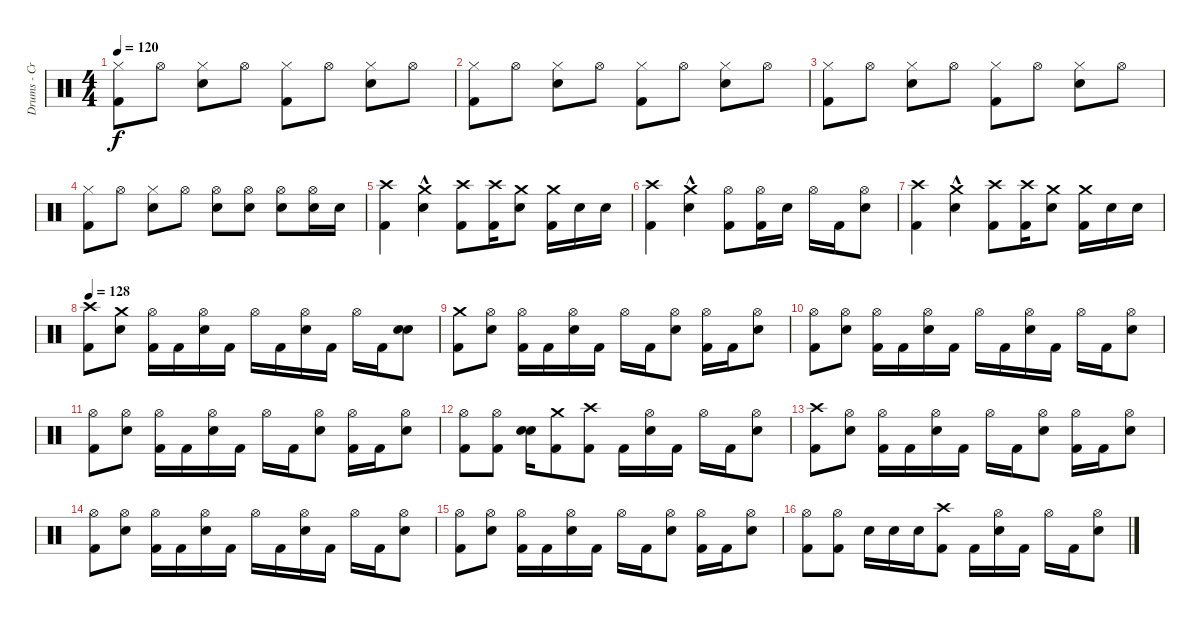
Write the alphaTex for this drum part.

\track ("Drums - Cris Knapp" "Drums - Cr") {instrument percussion}
\staff {score}
\articulation defaults
\ts (4 4)
\tempo 120
\clef neutral
\ks c
("Kick (hit) 2" "Hi-Hat (closed)").8{dy f} "Hi-Hat (open)".8 ("Electric Snare (hit)" "Hi-Hat (closed)").8 "Hi-Hat (open)".8 ("Kick (hit) 2" "Hi-Hat (closed)").8 "Hi-Hat (open)".8 ("Electric Snare (hit)" "Hi-Hat (closed)").8 "Hi-Hat (open)".8 |
("Kick (hit) 2" "Hi-Hat (closed)").8 "Hi-Hat (open)".8 ("Electric Snare (hit)" "Hi-Hat (closed)").8 "Hi-Hat (open)".8 ("Kick (hit) 2" "Hi-Hat (closed)").8 "Hi-Hat (open)".8 ("Electric Snare (hit)" "Hi-Hat (closed)").8 "Hi-Hat (open)".8 |
("Kick (hit) 2" "Hi-Hat (closed)").8 "Hi-Hat (open)".8 ("Electric Snare (hit)" "Hi-Hat (closed)").8 "Hi-Hat (open)".8 ("Kick (hit) 2" "Hi-Hat (closed)").8 "Hi-Hat (open)".8 ("Electric Snare (hit)" "Hi-Hat (closed)").8 "Hi-Hat (open)".8 |
("Kick (hit) 2" "Hi-Hat (closed)").8 "Hi-Hat (open)".8 ("Electric Snare (hit)" "Hi-Hat (closed)").8 "Hi-Hat (open)".8 ("Electric Snare (hit)" "Hi-Hat (open)").8 ("Electric Snare (hit)" "Hi-Hat (open)").8 ("Electric Snare (hit)" "Hi-Hat (open)").8 ("Electric Snare (hit)" "Hi-Hat (open)").16 "Electric Snare (hit)".16 |
("Kick (hit) 2" "Crash high (hit)").4 ("Electric Snare (hit)" "Crash medium (hit)"{hac}).4 ("Kick (hit) 2" "Crash high (hit)").8 ("Kick (hit) 2" "Crash high (hit)").16 ("Electric Snare (hit)" "Crash medium (hit)").8 ("Crash medium (hit)" "Kick (hit) 2").16 "Electric Snare (hit)".16 "Electric Snare (hit)".16 |
("Kick (hit) 2" "Crash high (hit)").4 ("Electric Snare (hit)" "Crash medium (hit)"{hac}).4 ("Kick (hit) 2" "Hi-Hat (open)").8 ("Kick (hit) 2" "Hi-Hat (open)").16 "Electric Snare (hit)".16 "Hi-Hat (open)".16 "Kick (hit) 2".16 ("Electric Snare (hit)" "Hi-Hat (open)").8 |
("Kick (hit) 2" "Crash high (hit)").4 ("Electric Snare (hit)" "Crash medium (hit)"{hac}).4 ("Kick (hit) 2" "Crash high (hit)").8 ("Kick (hit) 2" "Crash high (hit)").16 ("Electric Snare (hit)" "Crash medium (hit)").8 ("Crash medium (hit)" "Kick (hit) 2").16 "Electric Snare (hit)".16 "Electric Snare (hit)".16 |
\tempo 128
("Kick (hit) 2" "Crash high (hit)").8 ("Electric Snare (hit)" "Crash medium (hit)").8 ("Kick (hit) 2" "Hi-Hat (open)").16 "Kick (hit) 2".16 ("Electric Snare (hit)" "Hi-Hat (open)").16 "Kick (hit) 2".16 "Hi-Hat (open)".16 "Kick (hit) 2".16 ("Electric Snare (hit)" "Hi-Hat (open)").16 "Kick (hit) 2".16 "Hi-Hat (open)".16 "Kick (hit) 2".16 ("Electric Snare (hit)" "Electric Snare (hit)").8 |
("Kick (hit) 2" "Crash medium (hit)").8 ("Electric Snare (hit)" "Hi-Hat (open)").8 ("Kick (hit) 2" "Hi-Hat (open)").16 "Kick (hit) 2".16 ("Electric Snare (hit)" "Hi-Hat (open)").16 "Kick (hit) 2".16 "Hi-Hat (open)".16 "Kick (hit) 2".16 ("Electric Snare (hit)" "Hi-Hat (open)").8 ("Kick (hit) 2" "Hi-Hat (open)").16 "Kick (hit) 2".16 ("Electric Snare (hit)" "Hi-Hat (open)").8 |
("Kick (hit) 2" "Hi-Hat (open)").8 ("Electric Snare (hit)" "Hi-Hat (open)").8 ("Kick (hit) 2" "Hi-Hat (open)").16 "Kick (hit) 2".16 ("Electric Snare (hit)" "Hi-Hat (open)").16 "Kick (hit) 2".16 "Hi-Hat (open)".16 "Kick (hit) 2".16 ("Electric Snare (hit)" "Hi-Hat (open)").16 "Kick (hit) 2".16 "Hi-Hat (open)".16 "Kick (hit) 2".16 ("Electric Snare (hit)" "Hi-Hat (open)").8 |
("Kick (hit) 2" "Hi-Hat (open)").8 ("Electric Snare (hit)" "Hi-Hat (open)").8 ("Kick (hit) 2" "Hi-Hat (open)").16 "Kick (hit) 2".16 ("Electric Snare (hit)" "Hi-Hat (open)").16 "Kick (hit) 2".16 "Hi-Hat (open)".16 "Kick (hit) 2".16 ("Electric Snare (hit)" "Hi-Hat (open)").8 ("Kick (hit) 2" "Hi-Hat (open)").16 "Kick (hit) 2".16 ("Electric Snare (hit)" "Hi-Hat (open)").8 |
("Kick (hit) 2" "Hi-Hat (open)").8 ("Kick (hit) 2" "Hi-Hat (open)").8 ("Electric Snare (hit)" "Electric Snare (hit)").16 ("Kick (hit) 2" "Crash medium (hit)").8 ("Kick (hit) 2" "Crash high (hit)").8 "Kick (hit) 2".16 ("Electric Snare (hit)" "Hi-Hat (open)").16 "Kick (hit) 2".16 "Hi-Hat (open)".16 "Kick (hit) 2".16 ("Electric Snare (hit)" "Hi-Hat (open)").8 |
("Kick (hit) 2" "Crash high (hit)").8 ("Electric Snare (hit)" "Hi-Hat (open)").8 ("Kick (hit) 2" "Hi-Hat (open)").16 "Kick (hit) 2".16 ("Electric Snare (hit)" "Hi-Hat (open)").16 "Kick (hit) 2".16 "Hi-Hat (open)".16 "Kick (hit) 2".16 ("Electric Snare (hit)" "Hi-Hat (open)").8 ("Kick (hit) 2" "Hi-Hat (open)").16 "Kick (hit) 2".16 ("Electric Snare (hit)" "Hi-Hat (open)").8 |
("Kick (hit) 2" "Hi-Hat (open)").8 ("Electric Snare (hit)" "Hi-Hat (open)").8 ("Kick (hit) 2" "Hi-Hat (open)").16 "Kick (hit) 2".16 ("Electric Snare (hit)" "Hi-Hat (open)").16 "Kick (hit) 2".16 "Hi-Hat (open)".16 "Kick (hit) 2".16 ("Electric Snare (hit)" "Hi-Hat (open)").16 "Kick (hit) 2".16 "Hi-Hat (open)".16 "Kick (hit) 2".16 ("Electric Snare (hit)" "Hi-Hat (open)").8 |
("Kick (hit) 2" "Hi-Hat (open)").8 ("Electric Snare (hit)" "Hi-Hat (open)").8 ("Kick (hit) 2" "Hi-Hat (open)").16 "Kick (hit) 2".16 ("Electric Snare (hit)" "Hi-Hat (open)").16 "Kick (hit) 2".16 "Hi-Hat (open)".16 "Kick (hit) 2".16 ("Electric Snare (hit)" "Hi-Hat (open)").8 ("Kick (hit) 2" "Hi-Hat (open)").16 "Kick (hit) 2".16 ("Electric Snare (hit)" "Hi-Hat (open)").8 |
("Kick (hit) 2" "Hi-Hat (open)").8 ("Kick (hit) 2" "Hi-Hat (open)").8 "Electric Snare (hit)".16 "Electric Snare (hit)".16 "Electric Snare (hit)".16 ("Kick (hit) 2" "Crash high (hit)").8 "Kick (hit) 2".16 ("Electric Snare (hit)" "Hi-Hat (open)").16 "Kick (hit) 2".16 "Hi-Hat (open)".16 "Kick (hit) 2".16 ("Electric Snare (hit)" "Hi-Hat (open)").8
